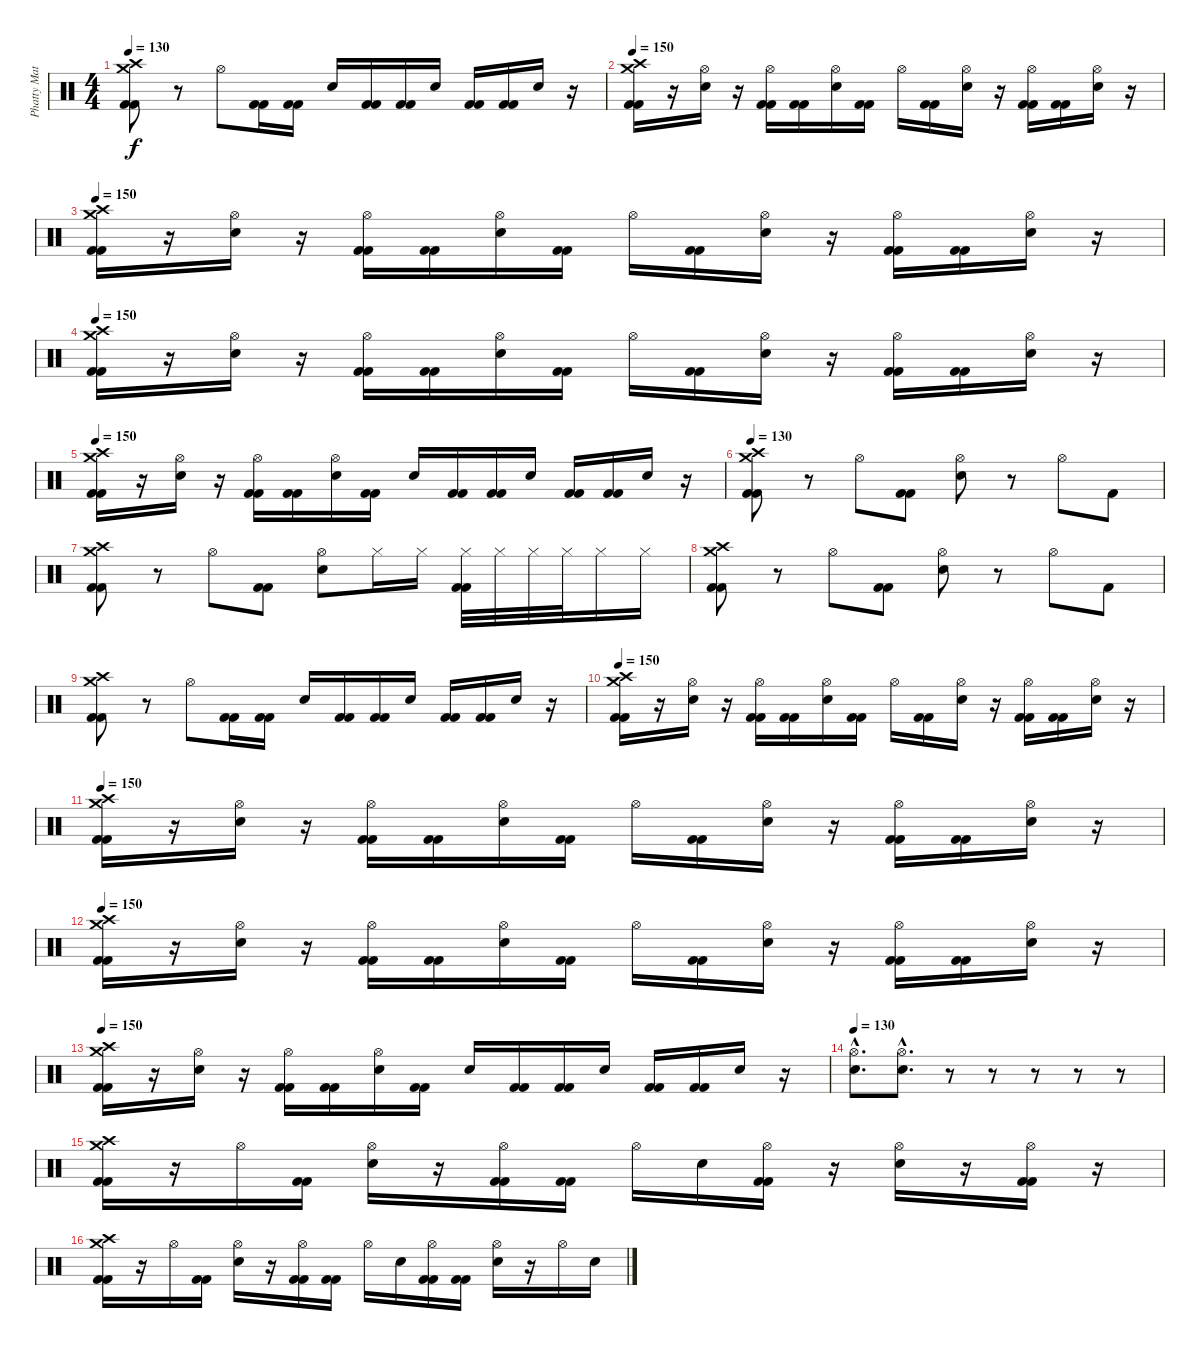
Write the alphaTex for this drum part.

\track ("Phatty Matty Withrow (Drums)" "Phatty Mat") {instrument percussion}
\staff {score}
\articulation defaults
\ts (4 4)
\tempo 130
\clef neutral
\ks c
("Crash high (hit)" "Crash medium (hit)" "Kick (hit) 2" "Kick (hit) 2").8{dy f} r.8 "Hi-Hat (open)".8 ("Kick (hit) 2" "Kick (hit) 2").16 ("Kick (hit) 2" "Kick (hit) 2").16 "Electric Snare (hit)".16 ("Kick (hit) 2" "Kick (hit) 2").16 ("Kick (hit) 2" "Kick (hit) 2").16 "Electric Snare (hit)".16 ("Kick (hit) 2" "Kick (hit) 2").16 ("Kick (hit) 2" "Kick (hit) 2").16 "Electric Snare (hit)".16 r.16 |
\tempo 150
("Crash high (hit)" "Crash medium (hit)" "Kick (hit) 2" "Kick (hit) 2").16 r.16 ("Hi-Hat (open)" "Electric Snare (hit)").16 r.16 ("Hi-Hat (open)" "Kick (hit) 2" "Kick (hit) 2").16 ("Kick (hit) 2" "Kick (hit) 2").16 ("Hi-Hat (open)" "Electric Snare (hit)").16 ("Kick (hit) 2" "Kick (hit) 2").16 "Hi-Hat (open)".16 ("Kick (hit) 2" "Kick (hit) 2").16 ("Hi-Hat (open)" "Electric Snare (hit)").16 r.16 ("Hi-Hat (open)" "Kick (hit) 2" "Kick (hit) 2").16 ("Kick (hit) 2" "Kick (hit) 2").16 ("Hi-Hat (open)" "Electric Snare (hit)").16 r.16 |
\tempo 150
("Crash high (hit)" "Crash medium (hit)" "Kick (hit) 2" "Kick (hit) 2").16 r.16 ("Hi-Hat (open)" "Electric Snare (hit)").16 r.16 ("Hi-Hat (open)" "Kick (hit) 2" "Kick (hit) 2").16 ("Kick (hit) 2" "Kick (hit) 2").16 ("Hi-Hat (open)" "Electric Snare (hit)").16 ("Kick (hit) 2" "Kick (hit) 2").16 "Hi-Hat (open)".16 ("Kick (hit) 2" "Kick (hit) 2").16 ("Hi-Hat (open)" "Electric Snare (hit)").16 r.16 ("Hi-Hat (open)" "Kick (hit) 2" "Kick (hit) 2").16 ("Kick (hit) 2" "Kick (hit) 2").16 ("Hi-Hat (open)" "Electric Snare (hit)").16 r.16 |
\tempo 150
("Crash high (hit)" "Crash medium (hit)" "Kick (hit) 2" "Kick (hit) 2").16 r.16 ("Hi-Hat (open)" "Electric Snare (hit)").16 r.16 ("Hi-Hat (open)" "Kick (hit) 2" "Kick (hit) 2").16 ("Kick (hit) 2" "Kick (hit) 2").16 ("Hi-Hat (open)" "Electric Snare (hit)").16 ("Kick (hit) 2" "Kick (hit) 2").16 "Hi-Hat (open)".16 ("Kick (hit) 2" "Kick (hit) 2").16 ("Hi-Hat (open)" "Electric Snare (hit)").16 r.16 ("Hi-Hat (open)" "Kick (hit) 2" "Kick (hit) 2").16 ("Kick (hit) 2" "Kick (hit) 2").16 ("Hi-Hat (open)" "Electric Snare (hit)").16 r.16 |
\tempo 150
("Crash high (hit)" "Crash medium (hit)" "Kick (hit) 2" "Kick (hit) 2").16 r.16 ("Hi-Hat (open)" "Electric Snare (hit)").16 r.16 ("Hi-Hat (open)" "Kick (hit) 2" "Kick (hit) 2").16 ("Kick (hit) 2" "Kick (hit) 2").16 ("Hi-Hat (open)" "Electric Snare (hit)").16 ("Kick (hit) 2" "Kick (hit) 2").16 "Electric Snare (hit)".16 ("Kick (hit) 2" "Kick (hit) 2").16 ("Kick (hit) 2" "Kick (hit) 2").16 "Electric Snare (hit)".16 ("Kick (hit) 2" "Kick (hit) 2").16 ("Kick (hit) 2" "Kick (hit) 2").16 "Electric Snare (hit)".16 r.16 |
\tempo 130
("Crash high (hit)" "Crash medium (hit)" "Kick (hit) 2" "Kick (hit) 2").8 r.8 "Hi-Hat (open)".8 ("Kick (hit) 2" "Kick (hit) 2").8 ("Hi-Hat (open)" "Electric Snare (hit)").8 r.8 "Hi-Hat (open)".8 "Kick (hit) 2".8 |
("Crash high (hit)" "Crash medium (hit)" "Kick (hit) 2" "Kick (hit) 2").8 r.8 "Hi-Hat (open)".8 ("Kick (hit) 2" "Kick (hit) 2").8 ("Hi-Hat (open)" "Electric Snare (hit)").8 "Hi-Hat (closed)".16 "Hi-Hat (closed)".16 ("Hi-Hat (closed)" "Kick (hit) 2" "Kick (hit) 2").32 "Hi-Hat (closed)".32 "Hi-Hat (closed)".32 "Hi-Hat (closed)".32 "Hi-Hat (closed)".16 "Hi-Hat (closed)".16 |
("Crash high (hit)" "Crash medium (hit)" "Kick (hit) 2" "Kick (hit) 2").8 r.8 "Hi-Hat (open)".8 ("Kick (hit) 2" "Kick (hit) 2").8 ("Hi-Hat (open)" "Electric Snare (hit)").8 r.8 "Hi-Hat (open)".8 "Kick (hit) 2".8 |
("Crash high (hit)" "Crash medium (hit)" "Kick (hit) 2" "Kick (hit) 2").8 r.8 "Hi-Hat (open)".8 ("Kick (hit) 2" "Kick (hit) 2").16 ("Kick (hit) 2" "Kick (hit) 2").16 "Electric Snare (hit)".16 ("Kick (hit) 2" "Kick (hit) 2").16 ("Kick (hit) 2" "Kick (hit) 2").16 "Electric Snare (hit)".16 ("Kick (hit) 2" "Kick (hit) 2").16 ("Kick (hit) 2" "Kick (hit) 2").16 "Electric Snare (hit)".16 r.16 |
\tempo 150
("Crash high (hit)" "Crash medium (hit)" "Kick (hit) 2" "Kick (hit) 2").16 r.16 ("Hi-Hat (open)" "Electric Snare (hit)").16 r.16 ("Hi-Hat (open)" "Kick (hit) 2" "Kick (hit) 2").16 ("Kick (hit) 2" "Kick (hit) 2").16 ("Hi-Hat (open)" "Electric Snare (hit)").16 ("Kick (hit) 2" "Kick (hit) 2").16 "Hi-Hat (open)".16 ("Kick (hit) 2" "Kick (hit) 2").16 ("Hi-Hat (open)" "Electric Snare (hit)").16 r.16 ("Hi-Hat (open)" "Kick (hit) 2" "Kick (hit) 2").16 ("Kick (hit) 2" "Kick (hit) 2").16 ("Hi-Hat (open)" "Electric Snare (hit)").16 r.16 |
\tempo 150
("Crash high (hit)" "Crash medium (hit)" "Kick (hit) 2" "Kick (hit) 2").16 r.16 ("Hi-Hat (open)" "Electric Snare (hit)").16 r.16 ("Hi-Hat (open)" "Kick (hit) 2" "Kick (hit) 2").16 ("Kick (hit) 2" "Kick (hit) 2").16 ("Hi-Hat (open)" "Electric Snare (hit)").16 ("Kick (hit) 2" "Kick (hit) 2").16 "Hi-Hat (open)".16 ("Kick (hit) 2" "Kick (hit) 2").16 ("Hi-Hat (open)" "Electric Snare (hit)").16 r.16 ("Hi-Hat (open)" "Kick (hit) 2" "Kick (hit) 2").16 ("Kick (hit) 2" "Kick (hit) 2").16 ("Hi-Hat (open)" "Electric Snare (hit)").16 r.16 |
\tempo 150
("Crash high (hit)" "Crash medium (hit)" "Kick (hit) 2" "Kick (hit) 2").16 r.16 ("Hi-Hat (open)" "Electric Snare (hit)").16 r.16 ("Hi-Hat (open)" "Kick (hit) 2" "Kick (hit) 2").16 ("Kick (hit) 2" "Kick (hit) 2").16 ("Hi-Hat (open)" "Electric Snare (hit)").16 ("Kick (hit) 2" "Kick (hit) 2").16 "Hi-Hat (open)".16 ("Kick (hit) 2" "Kick (hit) 2").16 ("Hi-Hat (open)" "Electric Snare (hit)").16 r.16 ("Hi-Hat (open)" "Kick (hit) 2" "Kick (hit) 2").16 ("Kick (hit) 2" "Kick (hit) 2").16 ("Hi-Hat (open)" "Electric Snare (hit)").16 r.16 |
\tempo 150
("Crash high (hit)" "Crash medium (hit)" "Kick (hit) 2" "Kick (hit) 2").16 r.16 ("Hi-Hat (open)" "Electric Snare (hit)").16 r.16 ("Hi-Hat (open)" "Kick (hit) 2" "Kick (hit) 2").16 ("Kick (hit) 2" "Kick (hit) 2").16 ("Hi-Hat (open)" "Electric Snare (hit)").16 ("Kick (hit) 2" "Kick (hit) 2").16 "Electric Snare (hit)".16 ("Kick (hit) 2" "Kick (hit) 2").16 ("Kick (hit) 2" "Kick (hit) 2").16 "Electric Snare (hit)".16 ("Kick (hit) 2" "Kick (hit) 2").16 ("Kick (hit) 2" "Kick (hit) 2").16 "Electric Snare (hit)".16 r.16 |
\tempo 130
("Hi-Hat (open)"{hac} "Electric Snare (hit)"{hac}).8{d} ("Hi-Hat (open)"{hac} "Electric Snare (hit)"{hac}).8{d} r.8 r.8 r.8 r.8 r.8 |
("Crash high (hit)" "Crash medium (hit)" "Kick (hit) 2" "Kick (hit) 2").16 r.16 "Hi-Hat (open)".16 ("Kick (hit) 2" "Kick (hit) 2").16 ("Hi-Hat (open)" "Electric Snare (hit)").16 r.16 ("Hi-Hat (open)" "Kick (hit) 2" "Kick (hit) 2").16 ("Kick (hit) 2" "Kick (hit) 2").16 "Hi-Hat (open)".16 "Electric Snare (hit)".16 ("Hi-Hat (open)" "Kick (hit) 2" "Kick (hit) 2").16 r.16 ("Hi-Hat (open)" "Electric Snare (hit)").16 r.16 ("Hi-Hat (open)" "Kick (hit) 2" "Kick (hit) 2").16 r.16 |
("Crash high (hit)" "Crash medium (hit)" "Kick (hit) 2" "Kick (hit) 2").16 r.16 "Hi-Hat (open)".16 ("Kick (hit) 2" "Kick (hit) 2").16 ("Hi-Hat (open)" "Electric Snare (hit)").16 r.16 ("Hi-Hat (open)" "Kick (hit) 2" "Kick (hit) 2").16 ("Kick (hit) 2" "Kick (hit) 2").16 "Hi-Hat (open)".16 "Electric Snare (hit)".16 ("Hi-Hat (open)" "Kick (hit) 2" "Kick (hit) 2").16 ("Kick (hit) 2" "Kick (hit) 2").16 ("Hi-Hat (open)" "Electric Snare (hit)").16 r.16 "Hi-Hat (open)".16 "Electric Snare (hit)".16
